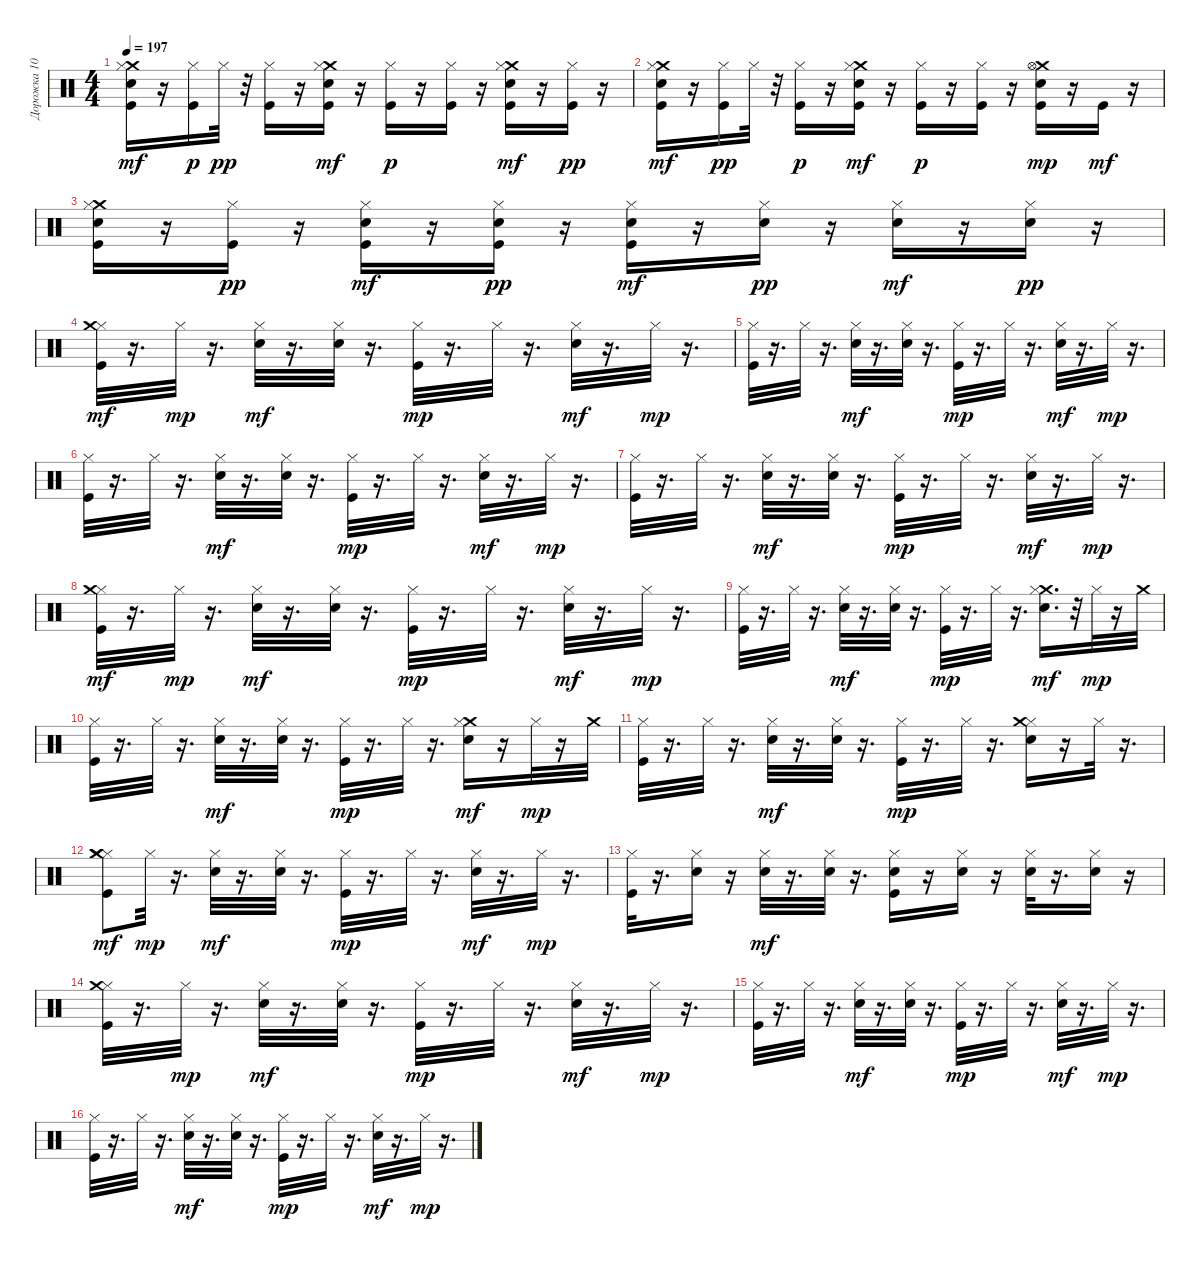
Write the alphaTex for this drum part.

\track ("Дорожка 10" "Дорожка 10") {instrument percussion}
\staff {score}
\articulation defaults
\ts (4 4)
\tempo 197
\clef neutral
\ks c
("Crash medium (hit)" "Snare (hit) 2" "Kick (hit)" "Hi-Hat (closed)").16{dy mf} r.16 ("Kick (hit)" "Hi-Hat (closed)").16{dy p} "Hi-Hat (closed)".32{dy pp} r.32 ("Kick (hit)" "Hi-Hat (closed)").16 r.16 ("Snare (hit) 2" "Crash medium (hit)" "Kick (hit)" "Hi-Hat (closed)").16{dy mf} r.16 ("Kick (hit)" "Hi-Hat (closed)").16{dy p} r.16 ("Kick (hit)" "Hi-Hat (closed)").16 r.16 ("Crash medium (hit)" "Snare (hit) 2" "Kick (hit)" "Hi-Hat (closed)").16{dy mf} r.16 ("Kick (hit)" "Hi-Hat (closed)").16{dy pp} r.16 |
("Crash medium (hit)" "Snare (hit) 2" "Kick (hit)" "Hi-Hat (closed)").16{dy mf} r.16 ("Kick (hit)" "Hi-Hat (closed)").16{dy pp} "Hi-Hat (closed)".32 r.32 ("Kick (hit)" "Hi-Hat (closed)").16{dy p} r.16 ("Snare (hit) 2" "Crash medium (hit)" "Kick (hit)" "Hi-Hat (closed)").16{dy mf} r.16 ("Kick (hit)" "Hi-Hat (closed)").16{dy p} r.16 ("Kick (hit)" "Hi-Hat (closed)").16 r.16 ("Crash medium (hit)" "Snare (hit) 2" "Kick (hit)" "Hi-Hat (open)").16{dy mp} r.16 "Kick (hit)".16{dy mf} r.16 |
("Crash medium (hit)" "Snare (hit) 2" "Kick (hit)" "Hi-Hat (closed)").16 r.16 ("Kick (hit)" "Hi-Hat (closed)").16{dy pp} r.16 ("Snare (hit) 2" "Kick (hit)" "Hi-Hat (closed)").16{dy mf} r.16 ("Snare (hit) 2" "Kick (hit)" "Hi-Hat (closed)").16{dy pp} r.16 ("Snare (hit) 2" "Kick (hit)" "Hi-Hat (closed)").16{dy mf} r.16 ("Snare (hit) 2" "Hi-Hat (closed)").16{dy pp} r.16 ("Snare (hit) 2" "Hi-Hat (closed)").16{dy mf} r.16 ("Snare (hit) 2" "Hi-Hat (closed)").16{dy pp} r.16 |
("Hi-Hat (closed)" "Kick (hit)" "Crash medium (hit)").32{dy mf} r.16{d} "Hi-Hat (closed)".32{dy mp} r.16{d} ("Hi-Hat (closed)" "Electric Snare (hit)").32{dy mf} r.16{d} ("Hi-Hat (closed)" "Electric Snare (hit)").32 r.16{d} ("Hi-Hat (closed)" "Kick (hit)").32{dy mp} r.16{d} "Hi-Hat (closed)".32 r.16{d} ("Hi-Hat (closed)" "Electric Snare (hit)").32{dy mf} r.16{d} "Hi-Hat (closed)".32{dy mp} r.16{d} |
("Hi-Hat (closed)" "Kick (hit)").32 r.16{d} "Hi-Hat (closed)".32 r.16{d} ("Hi-Hat (closed)" "Electric Snare (hit)").32{dy mf} r.16{d} ("Hi-Hat (closed)" "Electric Snare (hit)").32 r.16{d} ("Hi-Hat (closed)" "Kick (hit)").32{dy mp} r.16{d} "Hi-Hat (closed)".32 r.16{d} ("Hi-Hat (closed)" "Electric Snare (hit)").32{dy mf} r.16{d} "Hi-Hat (closed)".32{dy mp} r.16{d} |
("Hi-Hat (closed)" "Kick (hit)").32 r.16{d} "Hi-Hat (closed)".32 r.16{d} ("Hi-Hat (closed)" "Electric Snare (hit)").32{dy mf} r.16{d} ("Hi-Hat (closed)" "Electric Snare (hit)").32 r.16{d} ("Hi-Hat (closed)" "Kick (hit)").32{dy mp} r.16{d} "Hi-Hat (closed)".32 r.16{d} ("Hi-Hat (closed)" "Electric Snare (hit)").32{dy mf} r.16{d} "Hi-Hat (closed)".32{dy mp} r.16{d} |
("Hi-Hat (closed)" "Kick (hit)").32 r.16{d} "Hi-Hat (closed)".32 r.16{d} ("Hi-Hat (closed)" "Electric Snare (hit)").32{dy mf} r.16{d} ("Hi-Hat (closed)" "Electric Snare (hit)").32 r.16{d} ("Hi-Hat (closed)" "Kick (hit)").32{dy mp} r.16{d} "Hi-Hat (closed)".32 r.16{d} ("Hi-Hat (closed)" "Electric Snare (hit)").32{dy mf} r.16{d} "Hi-Hat (closed)".32{dy mp} r.16{d} |
("Hi-Hat (closed)" "Kick (hit)" "Crash medium (hit)").32{dy mf} r.16{d} "Hi-Hat (closed)".32{dy mp} r.16{d} ("Hi-Hat (closed)" "Electric Snare (hit)").32{dy mf} r.16{d} ("Hi-Hat (closed)" "Electric Snare (hit)").32 r.16{d} ("Hi-Hat (closed)" "Kick (hit)").32{dy mp} r.16{d} "Hi-Hat (closed)".32 r.16{d} ("Hi-Hat (closed)" "Electric Snare (hit)").32{dy mf} r.16{d} "Hi-Hat (closed)".32{dy mp} r.16{d} |
("Hi-Hat (closed)" "Kick (hit)").32 r.16{d} "Hi-Hat (closed)".32 r.16{d} ("Hi-Hat (closed)" "Electric Snare (hit)").32{dy mf} r.16{d} ("Hi-Hat (closed)" "Electric Snare (hit)").32 r.16{d} ("Hi-Hat (closed)" "Kick (hit)").32{dy mp} r.16{d} "Hi-Hat (closed)".32 r.16{d} ("Crash medium (hit)" "Hi-Hat (closed)" "Electric Snare (hit)").16{d dy mf} r.32 "Hi-Hat (closed)".32{dy mp} r.16 "Crash medium (hit)".32 |
("Hi-Hat (closed)" "Kick (hit)").32 r.16{d} "Hi-Hat (closed)".32 r.16{d} ("Hi-Hat (closed)" "Electric Snare (hit)").32{dy mf} r.16{d} ("Hi-Hat (closed)" "Electric Snare (hit)").32 r.16{d} ("Hi-Hat (closed)" "Kick (hit)").32{dy mp} r.16{d} "Hi-Hat (closed)".32 r.16{d} ("Crash medium (hit)" "Hi-Hat (closed)" "Electric Snare (hit)").16{dy mf} r.16 "Hi-Hat (closed)".32{dy mp} r.16 "Crash medium (hit)".32 |
("Hi-Hat (closed)" "Kick (hit)").32 r.16{d} "Hi-Hat (closed)".32 r.16{d} ("Hi-Hat (closed)" "Electric Snare (hit)").32{dy mf} r.16{d} ("Hi-Hat (closed)" "Electric Snare (hit)").32 r.16{d} ("Hi-Hat (closed)" "Kick (hit)").32{dy mp} r.16{d} "Hi-Hat (closed)".32 r.16{d} ("Hi-Hat (closed)" "Electric Snare (hit)" "Crash medium (hit)").16 r.16 "Hi-Hat (closed)".32 r.16{d} |
("Hi-Hat (closed)" "Kick (hit)" "Crash medium (hit)" "Crash medium (hit)").8{dy mf} "Hi-Hat (closed)".32{dy mp} r.16{d} ("Hi-Hat (closed)" "Electric Snare (hit)").32{dy mf} r.16{d} ("Hi-Hat (closed)" "Electric Snare (hit)").32 r.16{d} ("Hi-Hat (closed)" "Kick (hit)").32{dy mp} r.16{d} "Hi-Hat (closed)".32 r.16{d} ("Hi-Hat (closed)" "Electric Snare (hit)").32{dy mf} r.16{d} "Hi-Hat (closed)".32{dy mp} r.16{d} |
("Hi-Hat (closed)" "Kick (hit)").32 r.16{d} ("Hi-Hat (closed)" "Electric Snare (hit)").16 r.16 ("Hi-Hat (closed)" "Electric Snare (hit)").32{dy mf} r.16{d} ("Hi-Hat (closed)" "Electric Snare (hit)").32 r.16{d} ("Hi-Hat (closed)" "Kick (hit)" "Electric Snare (hit)").16 r.16 ("Hi-Hat (closed)" "Electric Snare (hit)").16 r.16 ("Hi-Hat (closed)" "Electric Snare (hit)").32 r.16{d} ("Hi-Hat (closed)" "Electric Snare (hit)").16 r.16 |
("Hi-Hat (closed)" "Kick (hit)" "Crash medium (hit)").32 r.16{d} "Hi-Hat (closed)".32{dy mp} r.16{d} ("Hi-Hat (closed)" "Electric Snare (hit)").32{dy mf} r.16{d} ("Hi-Hat (closed)" "Electric Snare (hit)").32 r.16{d} ("Hi-Hat (closed)" "Kick (hit)").32{dy mp} r.16{d} "Hi-Hat (closed)".32 r.16{d} ("Hi-Hat (closed)" "Electric Snare (hit)").32{dy mf} r.16{d} "Hi-Hat (closed)".32{dy mp} r.16{d} |
("Hi-Hat (closed)" "Kick (hit)").32 r.16{d} "Hi-Hat (closed)".32 r.16{d} ("Hi-Hat (closed)" "Electric Snare (hit)").32{dy mf} r.16{d} ("Hi-Hat (closed)" "Electric Snare (hit)").32 r.16{d} ("Hi-Hat (closed)" "Kick (hit)").32{dy mp} r.16{d} "Hi-Hat (closed)".32 r.16{d} ("Hi-Hat (closed)" "Electric Snare (hit)").32{dy mf} r.16{d} "Hi-Hat (closed)".32{dy mp} r.16{d} |
("Hi-Hat (closed)" "Kick (hit)").32 r.16{d} "Hi-Hat (closed)".32 r.16{d} ("Hi-Hat (closed)" "Electric Snare (hit)").32{dy mf} r.16{d} ("Hi-Hat (closed)" "Electric Snare (hit)").32 r.16{d} ("Hi-Hat (closed)" "Kick (hit)").32{dy mp} r.16{d} "Hi-Hat (closed)".32 r.16{d} ("Hi-Hat (closed)" "Electric Snare (hit)").32{dy mf} r.16{d} "Hi-Hat (closed)".32{dy mp} r.16{d}
